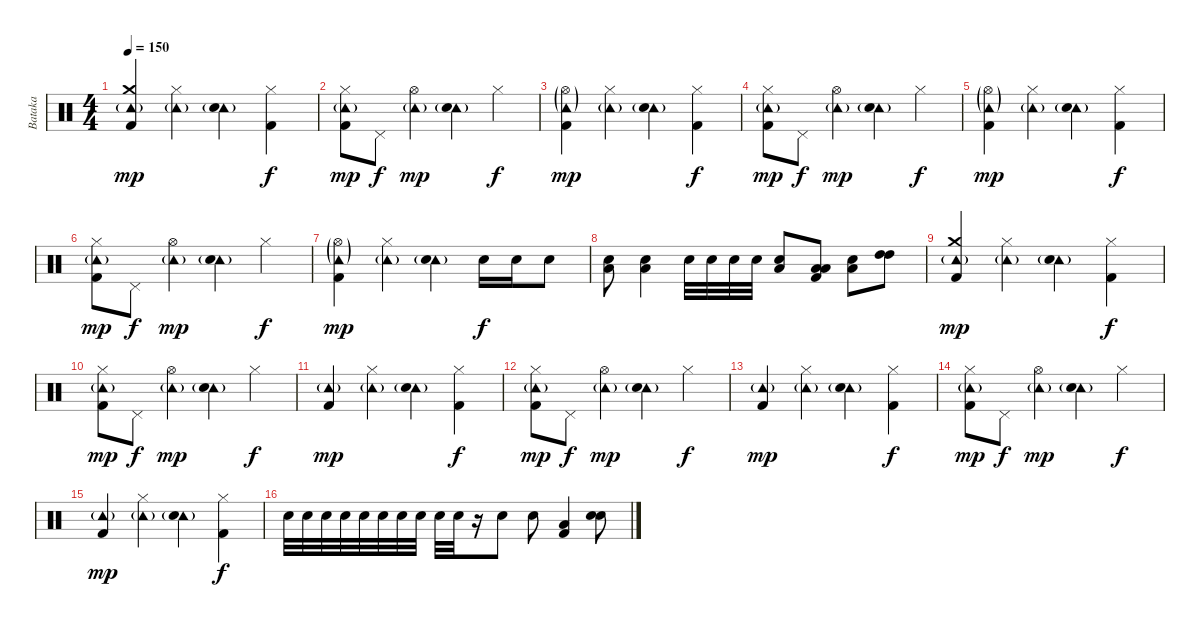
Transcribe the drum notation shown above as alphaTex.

\track ("Bataka" "Bataka") {instrument percussion}
\staff {score}
\articulation defaults
\ts (4 4)
\tempo 150
\clef neutral
\ks c
("Tambourine (hit)"{g} "Crash medium (hit)" "Kick (hit) 2").4{dy mp} ("Tambourine (hit)"{g} "Hi-Hat (closed)").4 ("Tambourine (hit)"{g} "Electric Snare (hit)").4 ("Hi-Hat (closed)" "Kick (hit) 2").4{dy f} |
("Tambourine (hit)"{g} "Hi-Hat (closed)" "Kick (hit) 2").8{dy mp} "Pedal Hi-Hat (hit)".8{dy f} ("Tambourine (hit)"{g} "Hi-Hat (open)").4{dy mp} ("Tambourine (hit)"{g} "Electric Snare (hit)").4 "Hi-Hat (closed)".4{dy f} |
("Tambourine (hit)"{g} "Hi-Hat (open)"{g} "Kick (hit) 2").4{dy mp} ("Tambourine (hit)"{g} "Hi-Hat (closed)").4 ("Tambourine (hit)"{g} "Electric Snare (hit)").4 ("Hi-Hat (closed)" "Kick (hit) 2").4{dy f} |
("Tambourine (hit)"{g} "Hi-Hat (closed)" "Kick (hit) 2").8{dy mp} "Pedal Hi-Hat (hit)".8{dy f} ("Tambourine (hit)"{g} "Hi-Hat (open)").4{dy mp} ("Tambourine (hit)"{g} "Electric Snare (hit)").4 "Hi-Hat (closed)".4{dy f} |
("Tambourine (hit)"{g} "Hi-Hat (open)"{g} "Kick (hit) 2").4{dy mp} ("Tambourine (hit)"{g} "Hi-Hat (closed)").4 ("Tambourine (hit)"{g} "Electric Snare (hit)").4 ("Hi-Hat (closed)" "Kick (hit) 2").4{dy f} |
("Tambourine (hit)"{g} "Hi-Hat (closed)" "Kick (hit) 2").8{dy mp} "Pedal Hi-Hat (hit)".8{dy f} ("Tambourine (hit)"{g} "Hi-Hat (open)").4{dy mp} ("Tambourine (hit)"{g} "Electric Snare (hit)").4 "Hi-Hat (closed)".4{dy f} |
("Tambourine (hit)"{g} "Hi-Hat (open)"{g} "Kick (hit) 2").4{dy mp} ("Tambourine (hit)"{g} "Hi-Hat (closed)").4 ("Tambourine (hit)"{g} "Electric Snare (hit)").4 "Electric Snare (hit)".16{dy f} "Electric Snare (hit)".16 "Electric Snare (hit)".8 |
("Low Floor Tom (hit)" "Snare (hit) 2").8 ("Low Floor Tom (hit)" "Electric Snare (hit)").4 "Electric Snare (hit)".32 "Electric Snare (hit)".32 "Electric Snare (hit)".32 "Electric Snare (hit)".32 ("Low Floor Tom (hit)" "Electric Snare (hit)").8 ("Low Floor Tom (hit)" "Low Floor Tom (hit)" "Kick (hit) 2").8 ("Electric Snare (hit)" "Low Floor Tom (hit)").8 ("High Tom (hit)" "High Tom (hit)").8 |
("Tambourine (hit)"{g} "Crash medium (hit)" "Kick (hit) 2").4{dy mp} ("Tambourine (hit)"{g} "Hi-Hat (closed)").4 ("Tambourine (hit)"{g} "Electric Snare (hit)").4 ("Hi-Hat (closed)" "Kick (hit) 2").4{dy f} |
("Tambourine (hit)"{g} "Hi-Hat (closed)" "Kick (hit) 2").8{dy mp} "Pedal Hi-Hat (hit)".8{dy f} ("Tambourine (hit)"{g} "Hi-Hat (open)").4{dy mp} ("Tambourine (hit)"{g} "Electric Snare (hit)").4 "Hi-Hat (closed)".4{dy f} |
("Tambourine (hit)"{g} "Kick (hit) 2").4{dy mp} ("Tambourine (hit)"{g} "Hi-Hat (closed)").4 ("Tambourine (hit)"{g} "Electric Snare (hit)").4 ("Hi-Hat (closed)" "Kick (hit) 2").4{dy f} |
("Tambourine (hit)"{g} "Hi-Hat (closed)" "Kick (hit) 2").8{dy mp} "Pedal Hi-Hat (hit)".8{dy f} ("Tambourine (hit)"{g} "Hi-Hat (open)").4{dy mp} ("Tambourine (hit)"{g} "Electric Snare (hit)").4 "Hi-Hat (closed)".4{dy f} |
("Tambourine (hit)"{g} "Kick (hit) 2").4{dy mp} ("Tambourine (hit)"{g} "Hi-Hat (closed)").4 ("Tambourine (hit)"{g} "Electric Snare (hit)").4 ("Hi-Hat (closed)" "Kick (hit) 2").4{dy f} |
("Tambourine (hit)"{g} "Hi-Hat (closed)" "Kick (hit) 2").8{dy mp} "Pedal Hi-Hat (hit)".8{dy f} ("Tambourine (hit)"{g} "Hi-Hat (open)").4{dy mp} ("Tambourine (hit)"{g} "Electric Snare (hit)").4 "Hi-Hat (closed)".4{dy f} |
("Tambourine (hit)"{g} "Kick (hit) 2").4{dy mp} ("Tambourine (hit)"{g} "Hi-Hat (closed)").4 ("Tambourine (hit)"{g} "Electric Snare (hit)").4 ("Hi-Hat (closed)" "Kick (hit) 2").4{dy f} |
"Electric Snare (hit)".32{volume 11} "Electric Snare (hit)".32 "Electric Snare (hit)".32 "Electric Snare (hit)".32 "Electric Snare (hit)".32 "Electric Snare (hit)".32 "Electric Snare (hit)".32 "Electric Snare (hit)".32 "Electric Snare (hit)".32 "Electric Snare (hit)".32 r.16 "Electric Snare (hit)".8 "Electric Snare (hit)".8 ("Low Floor Tom (hit)" "Kick (hit) 2").4 ("Electric Snare (hit)" "Electric Snare (hit)").8{volume 13}
